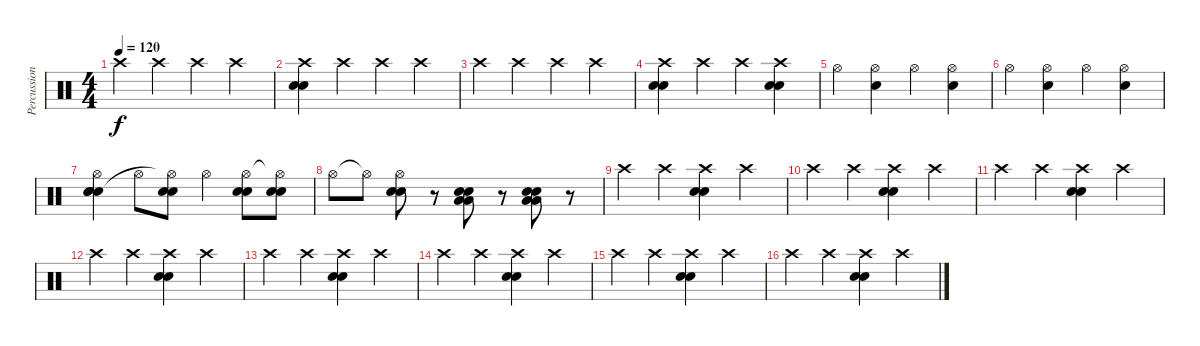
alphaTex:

\track ("Percussion" "Percussion") {instrument percussion}
\staff {score}
\articulation defaults
\ts (4 4)
\tempo 120
\clef neutral
\ks c "Crash high (hit)".4{dy f} "Crash high (hit)".4 "Crash high (hit)".4 "Crash high (hit)".4
|
("Electric Snare (hit)" "Crash high (hit)" "Electric Snare (hit)").4 "Crash high (hit)".4 "Crash high (hit)".4 "Crash high (hit)".4 |
"Crash high (hit)".4 "Crash high (hit)".4 "Crash high (hit)".4 "Crash high (hit)".4 |
("Electric Snare (hit)" "Crash high (hit)" "Electric Snare (hit)").4 "Crash high (hit)".4 "Crash high (hit)".4 ("Electric Snare (hit)" "Crash high (hit)" "Electric Snare (hit)").4 |
"Hi-Hat (open)".4 ("Hi-Hat (open)" "Electric Snare (hit)").4 "Hi-Hat (open)".4 ("Hi-Hat (open)" "Electric Snare (hit)").4 |
"Hi-Hat (open)".4 ("Hi-Hat (open)" "Electric Snare (hit)").4 "Hi-Hat (open)".4 ("Hi-Hat (open)" "Electric Snare (hit)").4 |
("Electric Snare (hit)" "Electric Snare (hit)" "Hi-Hat (open)" "Electric Snare (hit)").4 "Hi-Hat (open)".8 ("Electric Snare (hit)" "Hi-Hat (open)"{t} "Electric Snare (hit)").8 "Hi-Hat (open)".4 ("Electric Snare (hit)" "Hi-Hat (open)" "Electric Snare (hit)").8 ("Electric Snare (hit)" "Hi-Hat (open)"{t} "Electric Snare (hit)").8 |
"Hi-Hat (open)".8 "Hi-Hat (open)"{t}.8 ("Electric Snare (hit)" "Hi-Hat (open)" "Electric Snare (hit)").8 r.8 ("Low Floor Tom (hit)" "Electric Snare (hit)" "Low Floor Tom (hit)" "Electric Snare (hit)").8 r.8 ("Low Floor Tom (hit)" "Electric Snare (hit)" "Low Floor Tom (hit)" "Electric Snare (hit)").8 r.8 |
"Crash high (hit)".4 "Crash high (hit)".4 ("Electric Snare (hit)" "Crash high (hit)" "Electric Snare (hit)").4 "Crash high (hit)".4 |
"Crash high (hit)".4 "Crash high (hit)".4 ("Electric Snare (hit)" "Crash high (hit)" "Electric Snare (hit)").4 "Crash high (hit)".4 |
"Crash high (hit)".4 "Crash high (hit)".4 ("Electric Snare (hit)" "Crash high (hit)" "Electric Snare (hit)").4 "Crash high (hit)".4 |
"Crash high (hit)".4 "Crash high (hit)".4 ("Electric Snare (hit)" "Crash high (hit)" "Electric Snare (hit)").4 "Crash high (hit)".4 |
"Crash high (hit)".4 "Crash high (hit)".4 ("Electric Snare (hit)" "Crash high (hit)" "Electric Snare (hit)").4 "Crash high (hit)".4 |
"Crash high (hit)".4 "Crash high (hit)".4 ("Electric Snare (hit)" "Crash high (hit)" "Electric Snare (hit)").4 "Crash high (hit)".4 |
"Crash high (hit)".4 "Crash high (hit)".4 ("Electric Snare (hit)" "Crash high (hit)" "Electric Snare (hit)").4 "Crash high (hit)".4 |
"Crash high (hit)".4 "Crash high (hit)".4 ("Electric Snare (hit)" "Crash high (hit)" "Electric Snare (hit)").4 "Crash high (hit)".4
